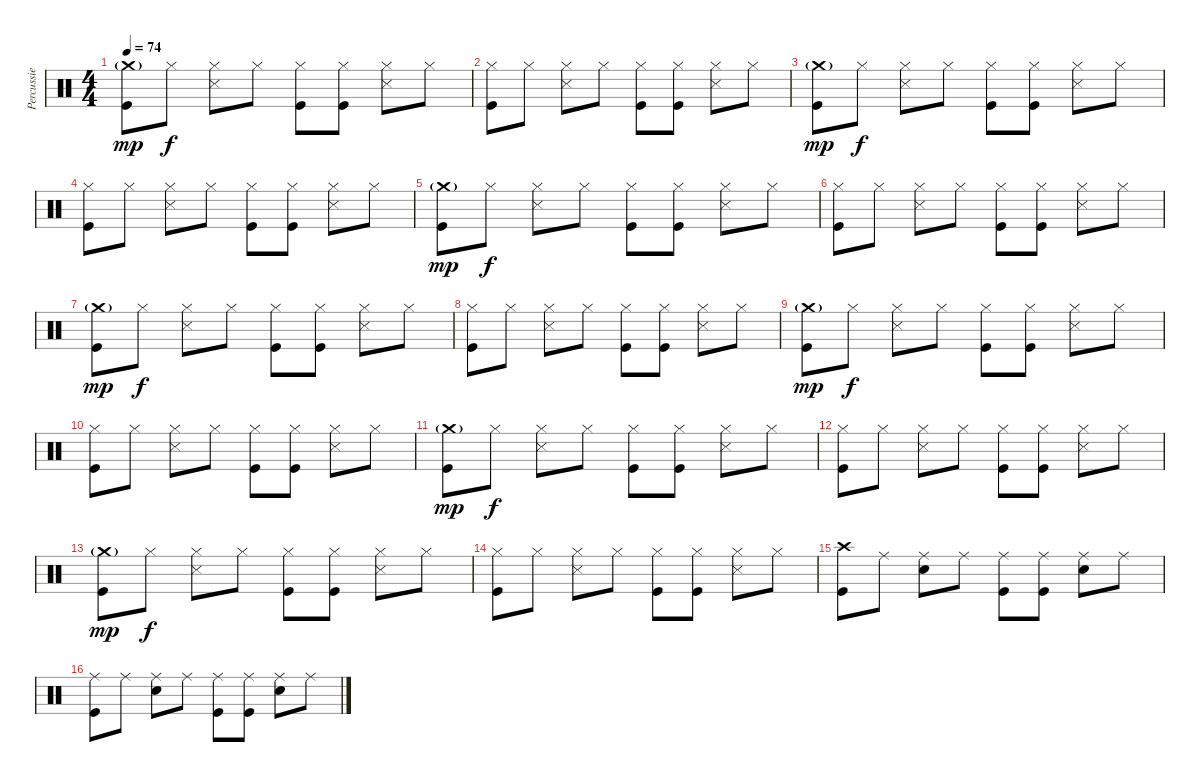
\track ("Percussie" "Percussie") {instrument percussion}
\staff {score}
\articulation defaults
\ts (4 4)
\tempo 74
\clef neutral
\ks c
("Crash medium (hit)"{g} "Kick (hit)").8{dy mp} "Hi-Hat (closed)".8{dy f} ("Hi-Hat (closed)" "Snare (side stick) 3").8 "Hi-Hat (closed)".8 ("Hi-Hat (closed)" "Kick (hit)").8 ("Hi-Hat (closed)" "Kick (hit)").8 ("Hi-Hat (closed)" "Snare (side stick) 3").8 "Hi-Hat (closed)".8 |
("Hi-Hat (closed)" "Kick (hit)").8 "Hi-Hat (closed)".8 ("Hi-Hat (closed)" "Snare (side stick) 3").8 "Hi-Hat (closed)".8 ("Hi-Hat (closed)" "Kick (hit)").8 ("Hi-Hat (closed)" "Kick (hit)").8 ("Hi-Hat (closed)" "Snare (side stick) 3").8 "Hi-Hat (closed)".8 |
("Crash medium (hit)"{g} "Kick (hit)").8{dy mp} "Hi-Hat (closed)".8{dy f} ("Hi-Hat (closed)" "Snare (side stick) 3").8 "Hi-Hat (closed)".8 ("Hi-Hat (closed)" "Kick (hit)").8 ("Hi-Hat (closed)" "Kick (hit)").8 ("Hi-Hat (closed)" "Snare (side stick) 3").8 "Hi-Hat (closed)".8 |
("Hi-Hat (closed)" "Kick (hit)").8 "Hi-Hat (closed)".8 ("Hi-Hat (closed)" "Snare (side stick) 3").8 "Hi-Hat (closed)".8 ("Hi-Hat (closed)" "Kick (hit)").8 ("Hi-Hat (closed)" "Kick (hit)").8 ("Hi-Hat (closed)" "Snare (side stick) 3").8 "Hi-Hat (closed)".8 |
("Crash medium (hit)"{g} "Kick (hit)").8{dy mp} "Hi-Hat (closed)".8{dy f} ("Hi-Hat (closed)" "Snare (side stick) 3").8 "Hi-Hat (closed)".8 ("Hi-Hat (closed)" "Kick (hit)").8 ("Hi-Hat (closed)" "Kick (hit)").8 ("Hi-Hat (closed)" "Snare (side stick) 3").8 "Hi-Hat (closed)".8 |
("Hi-Hat (closed)" "Kick (hit)").8 "Hi-Hat (closed)".8 ("Hi-Hat (closed)" "Snare (side stick) 3").8 "Hi-Hat (closed)".8 ("Hi-Hat (closed)" "Kick (hit)").8 ("Hi-Hat (closed)" "Kick (hit)").8 ("Hi-Hat (closed)" "Snare (side stick) 3").8 "Hi-Hat (closed)".8 |
("Crash medium (hit)"{g} "Kick (hit)").8{dy mp} "Hi-Hat (closed)".8{dy f} ("Hi-Hat (closed)" "Snare (side stick) 3").8 "Hi-Hat (closed)".8 ("Hi-Hat (closed)" "Kick (hit)").8 ("Hi-Hat (closed)" "Kick (hit)").8 ("Hi-Hat (closed)" "Snare (side stick) 3").8 "Hi-Hat (closed)".8 |
("Hi-Hat (closed)" "Kick (hit)").8 "Hi-Hat (closed)".8 ("Hi-Hat (closed)" "Snare (side stick) 3").8 "Hi-Hat (closed)".8 ("Hi-Hat (closed)" "Kick (hit)").8 ("Hi-Hat (closed)" "Kick (hit)").8 ("Hi-Hat (closed)" "Snare (side stick) 3").8 "Hi-Hat (closed)".8 |
("Crash medium (hit)"{g} "Kick (hit)").8{dy mp} "Hi-Hat (closed)".8{dy f} ("Hi-Hat (closed)" "Snare (side stick) 3").8 "Hi-Hat (closed)".8 ("Hi-Hat (closed)" "Kick (hit)").8 ("Hi-Hat (closed)" "Kick (hit)").8 ("Hi-Hat (closed)" "Snare (side stick) 3").8 "Hi-Hat (closed)".8 |
("Hi-Hat (closed)" "Kick (hit)").8 "Hi-Hat (closed)".8 ("Hi-Hat (closed)" "Snare (side stick) 3").8 "Hi-Hat (closed)".8 ("Hi-Hat (closed)" "Kick (hit)").8 ("Hi-Hat (closed)" "Kick (hit)").8 ("Hi-Hat (closed)" "Snare (side stick) 3").8 "Hi-Hat (closed)".8 |
("Crash medium (hit)"{g} "Kick (hit)").8{dy mp} "Hi-Hat (closed)".8{dy f} ("Hi-Hat (closed)" "Snare (side stick) 3").8 "Hi-Hat (closed)".8 ("Hi-Hat (closed)" "Kick (hit)").8 ("Hi-Hat (closed)" "Kick (hit)").8 ("Hi-Hat (closed)" "Snare (side stick) 3").8 "Hi-Hat (closed)".8 |
("Hi-Hat (closed)" "Kick (hit)").8 "Hi-Hat (closed)".8 ("Hi-Hat (closed)" "Snare (side stick) 3").8 "Hi-Hat (closed)".8 ("Hi-Hat (closed)" "Kick (hit)").8 ("Hi-Hat (closed)" "Kick (hit)").8 ("Hi-Hat (closed)" "Snare (side stick) 3").8 "Hi-Hat (closed)".8 |
("Crash medium (hit)"{g} "Kick (hit)").8{dy mp} "Hi-Hat (closed)".8{dy f} ("Hi-Hat (closed)" "Snare (side stick) 3").8 "Hi-Hat (closed)".8 ("Hi-Hat (closed)" "Kick (hit)").8 ("Hi-Hat (closed)" "Kick (hit)").8 ("Hi-Hat (closed)" "Snare (side stick) 3").8 "Hi-Hat (closed)".8 |
("Hi-Hat (closed)" "Kick (hit)").8 "Hi-Hat (closed)".8 ("Hi-Hat (closed)" "Snare (side stick) 3").8 "Hi-Hat (closed)".8 ("Hi-Hat (closed)" "Kick (hit)").8 ("Hi-Hat (closed)" "Kick (hit)").8 ("Hi-Hat (closed)" "Snare (side stick) 3").8 "Hi-Hat (closed)".8 |
("Crash high (hit)" "Kick (hit)").8 "Ride (middle)".8 ("Ride (middle)" "Snare (hit) 2").8 "Ride (middle)".8 ("Ride (middle)" "Kick (hit)").8 ("Ride (middle)" "Kick (hit)").8 ("Ride (middle)" "Snare (hit) 2").8 "Ride (middle)".8 |
("Ride (middle)" "Kick (hit)").8 "Ride (middle)".8 ("Ride (middle)" "Snare (hit) 2").8 "Ride (middle)".8 ("Ride (middle)" "Kick (hit)").8 ("Ride (middle)" "Kick (hit)").8 ("Ride (middle)" "Snare (hit) 2").8 "Ride (middle)".8
